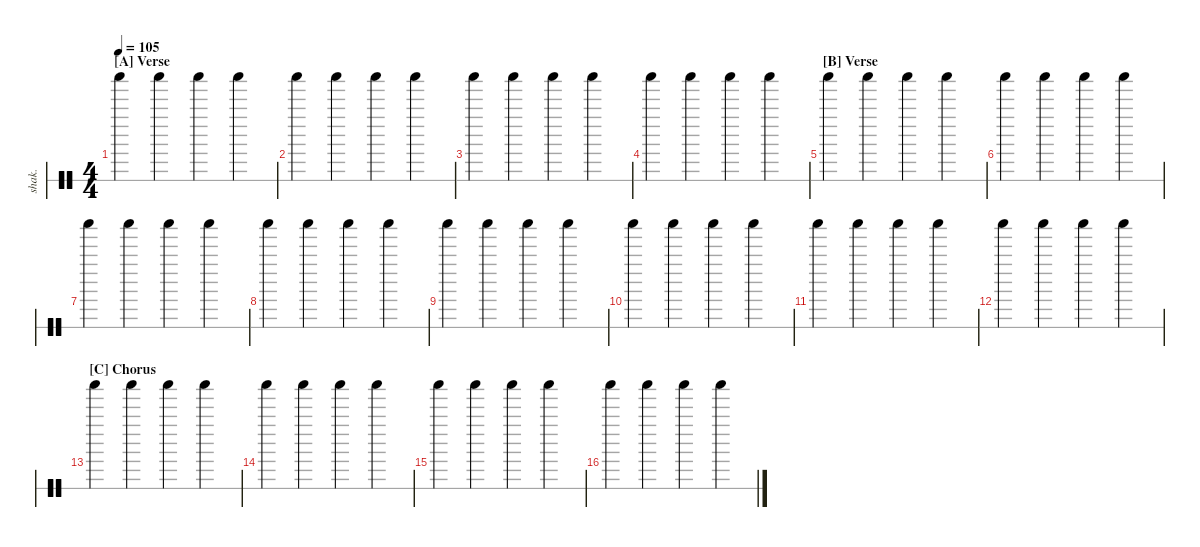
\defaultSystemsLayout 4
\hideDynamics
\bracketExtendMode nobrackets
\otherSystemsTrackNameOrientation horizontal
\track ("Shaker" "shak.") {instrument percussion}
\staff {score 1}
\articulation defaults
\ts (4 4)
\section ("A" "Verse")
\tempo 105
\clef neutral
\ks c "Shaker (hit)".4{dy mp beam Down} "Shaker (hit)".4{beam Down} "Shaker (hit)".4{beam Down} "Shaker (hit)".4{beam Down}
|
"Shaker (hit)".4{beam Down} "Shaker (hit)".4{beam Down} "Shaker (hit)".4{beam Down} "Shaker (hit)".4{beam Down} |
"Shaker (hit)".4{beam Down} "Shaker (hit)".4{beam Down} "Shaker (hit)".4{beam Down} "Shaker (hit)".4{beam Down} |
"Shaker (hit)".4{beam Down} "Shaker (hit)".4{beam Down} "Shaker (hit)".4{beam Down} "Shaker (hit)".4{beam Down} |
\section ("B" "Verse")
"Shaker (hit)".4{beam Down} "Shaker (hit)".4{beam Down} "Shaker (hit)".4{beam Down} "Shaker (hit)".4{beam Down} |
"Shaker (hit)".4{beam Down} "Shaker (hit)".4{beam Down} "Shaker (hit)".4{beam Down} "Shaker (hit)".4{beam Down} |
"Shaker (hit)".4{beam Down} "Shaker (hit)".4{beam Down} "Shaker (hit)".4{beam Down} "Shaker (hit)".4{beam Down} |
"Shaker (hit)".4{beam Down} "Shaker (hit)".4{beam Down} "Shaker (hit)".4{beam Down} "Shaker (hit)".4{beam Down} |
"Shaker (hit)".4{beam Down} "Shaker (hit)".4{beam Down} "Shaker (hit)".4{beam Down} "Shaker (hit)".4{beam Down} |
"Shaker (hit)".4{beam Down} "Shaker (hit)".4{beam Down} "Shaker (hit)".4{beam Down} "Shaker (hit)".4{beam Down} |
"Shaker (hit)".4{beam Down} "Shaker (hit)".4{beam Down} "Shaker (hit)".4{beam Down} "Shaker (hit)".4{beam Down} |
"Shaker (hit)".4{beam Down} "Shaker (hit)".4{beam Down} "Shaker (hit)".4{beam Down} "Shaker (hit)".4{beam Down} |
\section ("C" "Chorus")
"Shaker (hit)".4{beam Down} "Shaker (hit)".4{beam Down} "Shaker (hit)".4{beam Down} "Shaker (hit)".4{beam Down} |
"Shaker (hit)".4{beam Down} "Shaker (hit)".4{beam Down} "Shaker (hit)".4{beam Down} "Shaker (hit)".4{beam Down} |
"Shaker (hit)".4{beam Down} "Shaker (hit)".4{beam Down} "Shaker (hit)".4{beam Down} "Shaker (hit)".4{beam Down} |
"Shaker (hit)".4{beam Down} "Shaker (hit)".4{beam Down} "Shaker (hit)".4{beam Down} "Shaker (hit)".4{beam Down}
